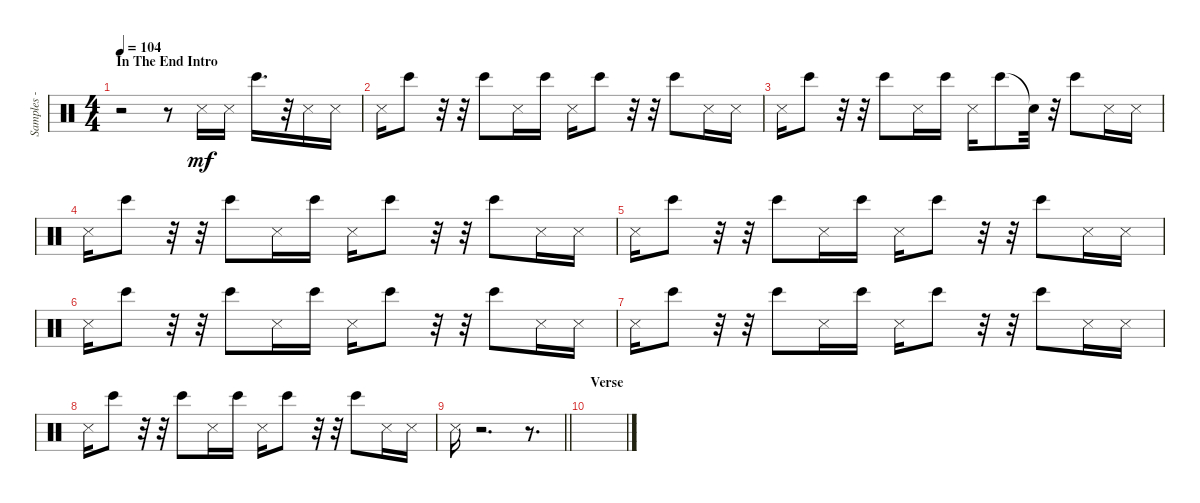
\track ("Samples - Joe Hahn" "Samples - ") {instrument percussion}
\staff {score}
\articulation defaults
\ts (4 4)
\section ("" "In The End Intro")
\tempo 104
\clef neutral
\ks c
r.2{dy fff volume 11} r.8 "Metronome (hit)".16{dy mf} "Metronome (hit)".16 "Bongo High (hit)".16{d} r.32 "Metronome (hit)".16 "Metronome (hit)".16 |
"Metronome (hit)".16 "Bongo High (hit)".8 r.32 r.32 "Bongo High (hit)".8 "Metronome (hit)".16 "Bongo High (hit)".16 "Metronome (hit)".16 "Bongo High (hit)".8 r.32 r.32 "Bongo High (hit)".8 "Metronome (hit)".16 "Metronome (hit)".16 |
"Metronome (hit)".16 "Bongo High (hit)".8 r.32 r.32 "Bongo High (hit)".8 "Metronome (hit)".16 "Bongo High (hit)".16 "Metronome (hit)".16 "Bongo High (hit)".8 "Snare (hit)"{t}.32 r.32 "Bongo High (hit)".8 "Metronome (hit)".16 "Metronome (hit)".16 |
"Metronome (hit)".16 "Bongo High (hit)".8 r.32 r.32 "Bongo High (hit)".8 "Metronome (hit)".16 "Bongo High (hit)".16 "Metronome (hit)".16 "Bongo High (hit)".8 r.32 r.32 "Bongo High (hit)".8 "Metronome (hit)".16 "Metronome (hit)".16 |
"Metronome (hit)".16 "Bongo High (hit)".8 r.32 r.32 "Bongo High (hit)".8 "Metronome (hit)".16 "Bongo High (hit)".16 "Metronome (hit)".16 "Bongo High (hit)".8 r.32 r.32 "Bongo High (hit)".8 "Metronome (hit)".16 "Metronome (hit)".16 |
"Metronome (hit)".16 "Bongo High (hit)".8 r.32 r.32 "Bongo High (hit)".8 "Metronome (hit)".16 "Bongo High (hit)".16 "Metronome (hit)".16 "Bongo High (hit)".8 r.32 r.32 "Bongo High (hit)".8 "Metronome (hit)".16 "Metronome (hit)".16 |
"Metronome (hit)".16 "Bongo High (hit)".8 r.32 r.32 "Bongo High (hit)".8 "Metronome (hit)".16 "Bongo High (hit)".16 "Metronome (hit)".16 "Bongo High (hit)".8 r.32 r.32 "Bongo High (hit)".8 "Metronome (hit)".16 "Metronome (hit)".16 |
"Metronome (hit)".16 "Bongo High (hit)".8 r.32 r.32 "Bongo High (hit)".8 "Metronome (hit)".16 "Bongo High (hit)".16 "Metronome (hit)".16 "Bongo High (hit)".8 r.32 r.32 "Bongo High (hit)".8 "Metronome (hit)".16 "Metronome (hit)".16 |
\barLineRight lightlight "Metronome (hit)".16
r.2{d} r.8{d} |
\section ("" "Verse")
